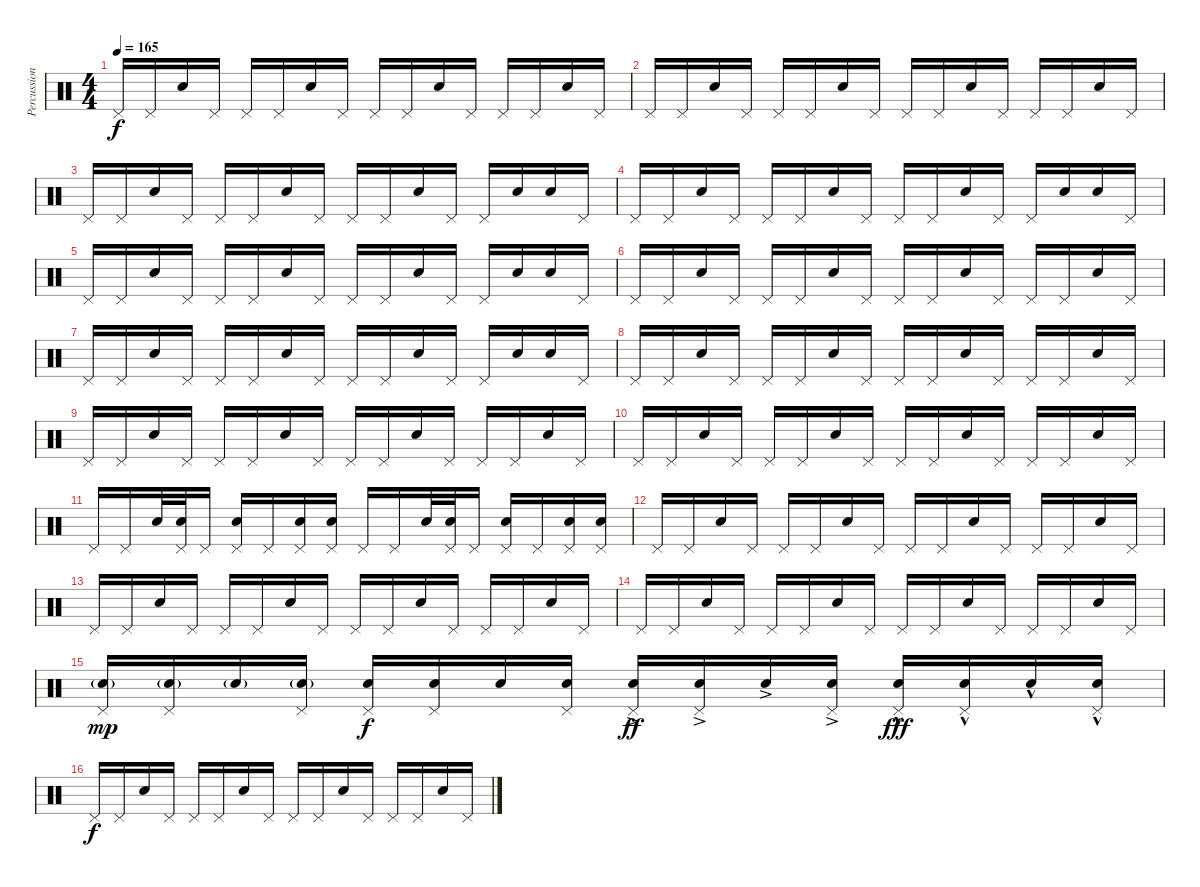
\track ("Percussions" "Percussion") {instrument percussion}
\staff {score}
\articulation defaults
\ts (4 4)
\tempo 165
\clef neutral
\ks c "Pedal Hi-Hat (hit)".16{dy f} "Pedal Hi-Hat (hit)".16 "Snare (hit) 2".16 "Pedal Hi-Hat (hit)".16 "Pedal Hi-Hat (hit)".16 "Pedal Hi-Hat (hit)".16 "Snare (hit) 2".16 "Pedal Hi-Hat (hit)".16 "Pedal Hi-Hat (hit)".16 "Pedal Hi-Hat (hit)".16 "Snare (hit) 2".16 "Pedal Hi-Hat (hit)".16 "Pedal Hi-Hat (hit)".16 "Pedal Hi-Hat (hit)".16 "Snare (hit) 2".16 "Pedal Hi-Hat (hit)".16
|
"Pedal Hi-Hat (hit)".16 "Pedal Hi-Hat (hit)".16 "Snare (hit) 2".16 "Pedal Hi-Hat (hit)".16 "Pedal Hi-Hat (hit)".16 "Pedal Hi-Hat (hit)".16 "Snare (hit) 2".16 "Pedal Hi-Hat (hit)".16 "Pedal Hi-Hat (hit)".16 "Pedal Hi-Hat (hit)".16 "Snare (hit) 2".16 "Pedal Hi-Hat (hit)".16 "Pedal Hi-Hat (hit)".16 "Pedal Hi-Hat (hit)".16 "Snare (hit) 2".16 "Pedal Hi-Hat (hit)".16 |
"Pedal Hi-Hat (hit)".16 "Pedal Hi-Hat (hit)".16 "Snare (hit) 2".16 "Pedal Hi-Hat (hit)".16 "Pedal Hi-Hat (hit)".16 "Pedal Hi-Hat (hit)".16 "Snare (hit) 2".16 "Pedal Hi-Hat (hit)".16 "Pedal Hi-Hat (hit)".16 "Pedal Hi-Hat (hit)".16 "Snare (hit) 2".16 "Pedal Hi-Hat (hit)".16 "Pedal Hi-Hat (hit)".16 "Snare (hit) 2".16 "Snare (hit) 2".16 "Pedal Hi-Hat (hit)".16 |
"Pedal Hi-Hat (hit)".16 "Pedal Hi-Hat (hit)".16 "Snare (hit) 2".16 "Pedal Hi-Hat (hit)".16 "Pedal Hi-Hat (hit)".16 "Pedal Hi-Hat (hit)".16 "Snare (hit) 2".16 "Pedal Hi-Hat (hit)".16 "Pedal Hi-Hat (hit)".16 "Pedal Hi-Hat (hit)".16 "Snare (hit) 2".16 "Pedal Hi-Hat (hit)".16 "Pedal Hi-Hat (hit)".16 "Snare (hit) 2".16 "Snare (hit) 2".16 "Pedal Hi-Hat (hit)".16 |
"Pedal Hi-Hat (hit)".16 "Pedal Hi-Hat (hit)".16 "Snare (hit) 2".16 "Pedal Hi-Hat (hit)".16 "Pedal Hi-Hat (hit)".16 "Pedal Hi-Hat (hit)".16 "Snare (hit) 2".16 "Pedal Hi-Hat (hit)".16 "Pedal Hi-Hat (hit)".16 "Pedal Hi-Hat (hit)".16 "Snare (hit) 2".16 "Pedal Hi-Hat (hit)".16 "Pedal Hi-Hat (hit)".16 "Snare (hit) 2".16 "Snare (hit) 2".16 "Pedal Hi-Hat (hit)".16 |
"Pedal Hi-Hat (hit)".16 "Pedal Hi-Hat (hit)".16 "Snare (hit) 2".16 "Pedal Hi-Hat (hit)".16 "Pedal Hi-Hat (hit)".16 "Pedal Hi-Hat (hit)".16 "Snare (hit) 2".16 "Pedal Hi-Hat (hit)".16 "Pedal Hi-Hat (hit)".16 "Pedal Hi-Hat (hit)".16 "Snare (hit) 2".16 "Pedal Hi-Hat (hit)".16 "Pedal Hi-Hat (hit)".16 "Pedal Hi-Hat (hit)".16 "Snare (hit) 2".16 "Pedal Hi-Hat (hit)".16 |
"Pedal Hi-Hat (hit)".16 "Pedal Hi-Hat (hit)".16 "Snare (hit) 2".16 "Pedal Hi-Hat (hit)".16 "Pedal Hi-Hat (hit)".16 "Pedal Hi-Hat (hit)".16 "Snare (hit) 2".16 "Pedal Hi-Hat (hit)".16 "Pedal Hi-Hat (hit)".16 "Pedal Hi-Hat (hit)".16 "Snare (hit) 2".16 "Pedal Hi-Hat (hit)".16 "Pedal Hi-Hat (hit)".16 "Snare (hit) 2".16 "Snare (hit) 2".16 "Pedal Hi-Hat (hit)".16 |
"Pedal Hi-Hat (hit)".16 "Pedal Hi-Hat (hit)".16 "Snare (hit) 2".16 "Pedal Hi-Hat (hit)".16 "Pedal Hi-Hat (hit)".16 "Pedal Hi-Hat (hit)".16 "Snare (hit) 2".16 "Pedal Hi-Hat (hit)".16 "Pedal Hi-Hat (hit)".16 "Pedal Hi-Hat (hit)".16 "Snare (hit) 2".16 "Pedal Hi-Hat (hit)".16 "Pedal Hi-Hat (hit)".16 "Pedal Hi-Hat (hit)".16 "Snare (hit) 2".16 "Pedal Hi-Hat (hit)".16 |
"Pedal Hi-Hat (hit)".16 "Pedal Hi-Hat (hit)".16 "Snare (hit) 2".16 "Pedal Hi-Hat (hit)".16 "Pedal Hi-Hat (hit)".16 "Pedal Hi-Hat (hit)".16 "Snare (hit) 2".16 "Pedal Hi-Hat (hit)".16 "Pedal Hi-Hat (hit)".16 "Pedal Hi-Hat (hit)".16 "Snare (hit) 2".16 "Pedal Hi-Hat (hit)".16 "Pedal Hi-Hat (hit)".16 "Pedal Hi-Hat (hit)".16 "Snare (hit) 2".16 "Pedal Hi-Hat (hit)".16 |
"Pedal Hi-Hat (hit)".16 "Pedal Hi-Hat (hit)".16 "Snare (hit) 2".16 "Pedal Hi-Hat (hit)".16 "Pedal Hi-Hat (hit)".16 "Pedal Hi-Hat (hit)".16 "Snare (hit) 2".16 "Pedal Hi-Hat (hit)".16 "Pedal Hi-Hat (hit)".16 "Pedal Hi-Hat (hit)".16 "Snare (hit) 2".16 "Pedal Hi-Hat (hit)".16 "Pedal Hi-Hat (hit)".16 "Pedal Hi-Hat (hit)".16 "Snare (hit) 2".16 "Pedal Hi-Hat (hit)".16 |
"Pedal Hi-Hat (hit)".16 "Pedal Hi-Hat (hit)".16 "Snare (hit) 2".32 ("Snare (hit) 2" "Pedal Hi-Hat (hit)").32 "Pedal Hi-Hat (hit)".16 ("Snare (hit) 2" "Pedal Hi-Hat (hit)").16 "Pedal Hi-Hat (hit)".16 ("Snare (hit) 2" "Pedal Hi-Hat (hit)").16 ("Snare (hit) 2" "Pedal Hi-Hat (hit)").16 "Pedal Hi-Hat (hit)".16 "Pedal Hi-Hat (hit)".16 "Snare (hit) 2".32 ("Snare (hit) 2" "Pedal Hi-Hat (hit)").32 "Pedal Hi-Hat (hit)".16 ("Snare (hit) 2" "Pedal Hi-Hat (hit)").16 "Pedal Hi-Hat (hit)".16 ("Snare (hit) 2" "Pedal Hi-Hat (hit)").16 ("Snare (hit) 2" "Pedal Hi-Hat (hit)").16 |
"Pedal Hi-Hat (hit)".16 "Pedal Hi-Hat (hit)".16 "Snare (hit) 2".16 "Pedal Hi-Hat (hit)".16 "Pedal Hi-Hat (hit)".16 "Pedal Hi-Hat (hit)".16 "Snare (hit) 2".16 "Pedal Hi-Hat (hit)".16 "Pedal Hi-Hat (hit)".16 "Pedal Hi-Hat (hit)".16 "Snare (hit) 2".16 "Pedal Hi-Hat (hit)".16 "Pedal Hi-Hat (hit)".16 "Pedal Hi-Hat (hit)".16 "Snare (hit) 2".16 "Pedal Hi-Hat (hit)".16 |
"Pedal Hi-Hat (hit)".16 "Pedal Hi-Hat (hit)".16 "Snare (hit) 2".16 "Pedal Hi-Hat (hit)".16 "Pedal Hi-Hat (hit)".16 "Pedal Hi-Hat (hit)".16 "Snare (hit) 2".16 "Pedal Hi-Hat (hit)".16 "Pedal Hi-Hat (hit)".16 "Pedal Hi-Hat (hit)".16 "Snare (hit) 2".16 "Pedal Hi-Hat (hit)".16 "Pedal Hi-Hat (hit)".16 "Pedal Hi-Hat (hit)".16 "Snare (hit) 2".16 "Pedal Hi-Hat (hit)".16 |
"Pedal Hi-Hat (hit)".16 "Pedal Hi-Hat (hit)".16 "Snare (hit) 2".16 "Pedal Hi-Hat (hit)".16 "Pedal Hi-Hat (hit)".16 "Pedal Hi-Hat (hit)".16 "Snare (hit) 2".16 "Pedal Hi-Hat (hit)".16 "Pedal Hi-Hat (hit)".16 "Pedal Hi-Hat (hit)".16 "Snare (hit) 2".16 "Pedal Hi-Hat (hit)".16 "Pedal Hi-Hat (hit)".16 "Pedal Hi-Hat (hit)".16 "Snare (hit) 2".16 "Pedal Hi-Hat (hit)".16 |
("Snare (hit) 2"{g} "Pedal Hi-Hat (hit)").16{dy mp} ("Snare (hit) 2"{g} "Pedal Hi-Hat (hit)").16 "Snare (hit) 2"{g}.16 ("Snare (hit) 2"{g} "Pedal Hi-Hat (hit)").16 ("Snare (hit) 2" "Pedal Hi-Hat (hit)").16{dy f} ("Snare (hit) 2" "Pedal Hi-Hat (hit)").16 "Snare (hit) 2".16 ("Snare (hit) 2" "Pedal Hi-Hat (hit)").16 ("Snare (hit) 2"{ac} "Pedal Hi-Hat (hit)").16{dy ff} ("Snare (hit) 2"{ac} "Pedal Hi-Hat (hit)").16 "Snare (hit) 2"{ac}.16 ("Snare (hit) 2"{ac} "Pedal Hi-Hat (hit)").16 ("Snare (hit) 2"{hac} "Pedal Hi-Hat (hit)").16{dy fff} ("Snare (hit) 2"{hac} "Pedal Hi-Hat (hit)").16 "Snare (hit) 2"{hac}.16 ("Snare (hit) 2"{hac} "Pedal Hi-Hat (hit)").16 |
"Pedal Hi-Hat (hit)".16{dy f} "Pedal Hi-Hat (hit)".16 "Snare (hit) 2".16 "Pedal Hi-Hat (hit)".16 "Pedal Hi-Hat (hit)".16 "Pedal Hi-Hat (hit)".16 "Snare (hit) 2".16 "Pedal Hi-Hat (hit)".16 "Pedal Hi-Hat (hit)".16 "Pedal Hi-Hat (hit)".16 "Snare (hit) 2".16 "Pedal Hi-Hat (hit)".16 "Pedal Hi-Hat (hit)".16 "Pedal Hi-Hat (hit)".16 "Snare (hit) 2".16 "Pedal Hi-Hat (hit)".16
